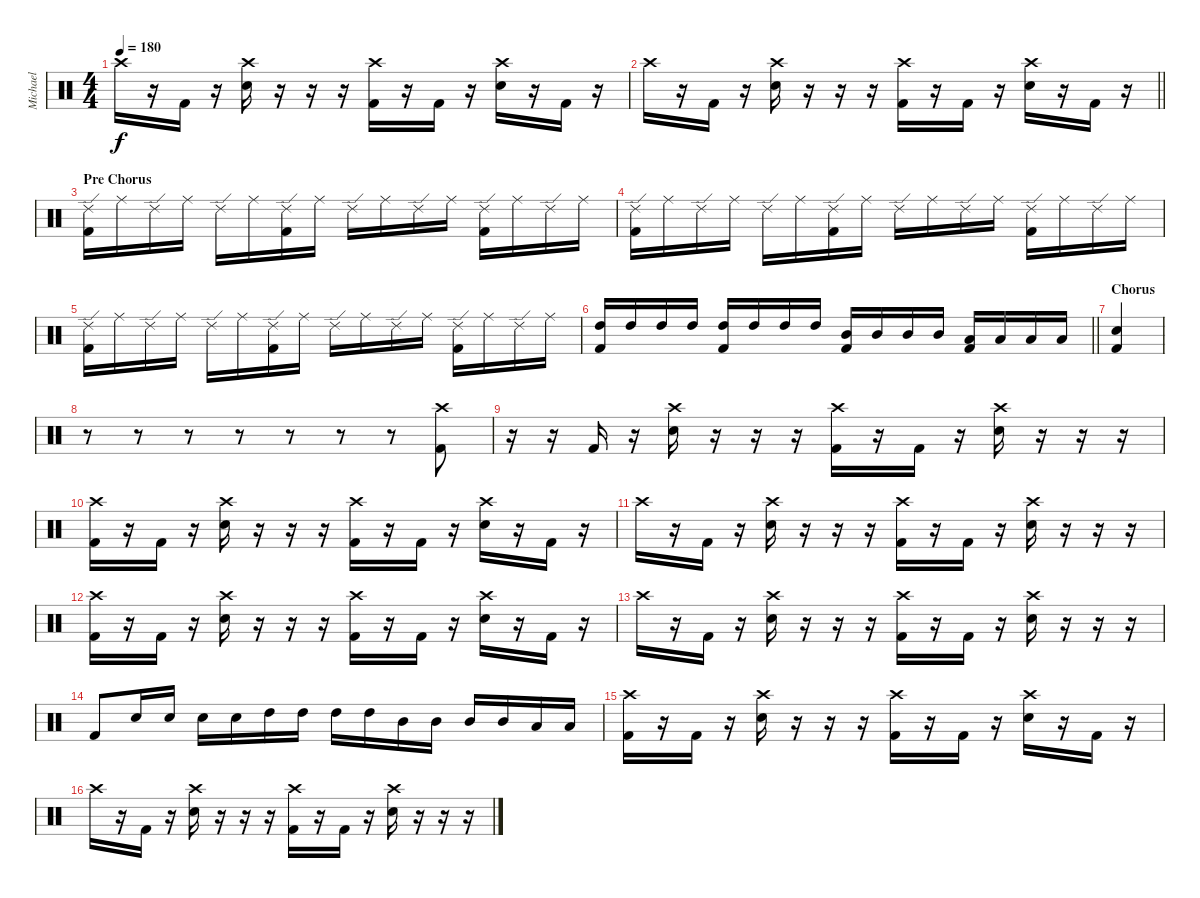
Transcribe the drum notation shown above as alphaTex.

\track ("Michael" "Michael") {instrument percussion}
\staff {score}
\articulation defaults
\ts (4 4)
\tempo 180
\clef neutral
\ks c "Crash high (hit)".16{dy f}
r.16 "Kick (hit) 2".16 r.16 ("Crash high (hit)" "Electric Snare (hit)").16 r.16 r.16 r.16 ("Crash high (hit)" "Kick (hit) 2").16 r.16 "Kick (hit) 2".16 r.16 ("Crash high (hit)" "Electric Snare (hit)").16 r.16 "Kick (hit) 2".16 r.16 |
\barLineRight lightlight "Crash high (hit)".16
r.16 "Kick (hit) 2".16 r.16 ("Crash high (hit)" "Electric Snare (hit)").16 r.16 r.16 r.16 ("Crash high (hit)" "Kick (hit) 2").16 r.16 "Kick (hit) 2".16 r.16 ("Crash high (hit)" "Electric Snare (hit)").16 r.16 "Kick (hit) 2".16 r.16 |
\section ("" "Pre Chorus")
("Ride (edge) 2" "Kick (hit) 2").16 "Ride (middle)".16 "Ride (edge) 2".16 "Ride (middle)".16 "Ride (edge) 2".16 "Ride (middle)".16 ("Ride (edge) 2" "Kick (hit) 2").16 "Ride (middle)".16 "Ride (edge) 2".16 "Ride (middle)".16 "Ride (edge) 2".16 "Ride (middle)".16 ("Ride (edge) 2" "Kick (hit) 2").16 "Ride (middle)".16 "Ride (edge) 2".16 "Ride (middle)".16 |
("Ride (edge) 2" "Kick (hit) 2").16 "Ride (middle)".16 "Ride (edge) 2".16 "Ride (middle)".16 "Ride (edge) 2".16 "Ride (middle)".16 ("Ride (edge) 2" "Kick (hit) 2").16 "Ride (middle)".16 "Ride (edge) 2".16 "Ride (middle)".16 "Ride (edge) 2".16 "Ride (middle)".16 ("Ride (edge) 2" "Kick (hit) 2").16 "Ride (middle)".16 "Ride (edge) 2".16 "Ride (middle)".16 |
("Ride (edge) 2" "Kick (hit) 2").16 "Ride (middle)".16 "Ride (edge) 2".16 "Ride (middle)".16 "Ride (edge) 2".16 "Ride (middle)".16 ("Ride (edge) 2" "Kick (hit) 2").16 "Ride (middle)".16 "Ride (edge) 2".16 "Ride (middle)".16 "Ride (edge) 2".16 "Ride (middle)".16 ("Ride (edge) 2" "Kick (hit) 2").16 "Ride (middle)".16 "Ride (edge) 2".16 "Ride (middle)".16 |
\barLineRight lightlight
("High Tom (hit)" "Kick (hit) 2").16 "High Tom (hit)".16 "High Tom (hit)".16 "High Tom (hit)".16 ("High Tom (hit)" "Kick (hit) 2").16 "High Tom (hit)".16 "High Tom (hit)".16 "High Tom (hit)".16 ("Mid Tom (hit)" "Kick (hit) 2").16 "Mid Tom (hit)".16 "Mid Tom (hit)".16 "Mid Tom (hit)".16 ("Low Tom (hit)" "Kick (hit) 2").16 "Low Tom (hit)".16 "Low Tom (hit)".16 "Low Tom (hit)".16 |
\section ("" "Chorus")
("Electric Snare (hit)" "Kick (hit) 2").4 |
r.8 r.8 r.8 r.8 r.8 r.8 r.8 ("Crash high (hit)" "Kick (hit) 2").8 |
r.16 r.16 "Kick (hit) 2".16 r.16 ("Crash high (hit)" "Electric Snare (hit)").16 r.16 r.16 r.16 ("Crash high (hit)" "Kick (hit) 2").16 r.16 "Kick (hit) 2".16 r.16 ("Crash high (hit)" "Electric Snare (hit)").16 r.16 r.16 r.16 |
("Crash high (hit)" "Kick (hit) 2").16 r.16 "Kick (hit) 2".16 r.16 ("Crash high (hit)" "Electric Snare (hit)").16 r.16 r.16 r.16 ("Crash high (hit)" "Kick (hit) 2").16 r.16 "Kick (hit) 2".16 r.16 ("Crash high (hit)" "Electric Snare (hit)").16 r.16 "Kick (hit) 2".16 r.16 |
"Crash high (hit)".16 r.16 "Kick (hit) 2".16 r.16 ("Crash high (hit)" "Electric Snare (hit)").16 r.16 r.16 r.16 ("Crash high (hit)" "Kick (hit) 2").16 r.16 "Kick (hit) 2".16 r.16 ("Crash high (hit)" "Electric Snare (hit)").16 r.16 r.16 r.16 |
("Crash high (hit)" "Kick (hit) 2").16 r.16 "Kick (hit) 2".16 r.16 ("Crash high (hit)" "Electric Snare (hit)").16 r.16 r.16 r.16 ("Crash high (hit)" "Kick (hit) 2").16 r.16 "Kick (hit) 2".16 r.16 ("Crash high (hit)" "Electric Snare (hit)").16 r.16 "Kick (hit) 2".16 r.16 |
"Crash high (hit)".16 r.16 "Kick (hit) 2".16 r.16 ("Crash high (hit)" "Electric Snare (hit)").16 r.16 r.16 r.16 ("Crash high (hit)" "Kick (hit) 2").16 r.16 "Kick (hit) 2".16 r.16 ("Crash high (hit)" "Electric Snare (hit)").16 r.16 r.16 r.16 |
"Kick (hit) 2".8 "Electric Snare (hit)".16 "Electric Snare (hit)".16 "Electric Snare (hit)".16 "Electric Snare (hit)".16 "High Tom (hit)".16 "High Tom (hit)".16 "High Tom (hit)".16 "High Tom (hit)".16 "Mid Tom (hit)".16 "Mid Tom (hit)".16 "Mid Tom (hit)".16 "Mid Tom (hit)".16 "Low Tom (hit)".16 "Low Tom (hit)".16 |
("Crash high (hit)" "Kick (hit) 2").16 r.16 "Kick (hit) 2".16 r.16 ("Crash high (hit)" "Electric Snare (hit)").16 r.16 r.16 r.16 ("Crash high (hit)" "Kick (hit) 2").16 r.16 "Kick (hit) 2".16 r.16 ("Crash high (hit)" "Electric Snare (hit)").16 r.16 "Kick (hit) 2".16 r.16 |
"Crash high (hit)".16 r.16 "Kick (hit) 2".16 r.16 ("Crash high (hit)" "Electric Snare (hit)").16 r.16 r.16 r.16 ("Crash high (hit)" "Kick (hit) 2").16 r.16 "Kick (hit) 2".16 r.16 ("Crash high (hit)" "Electric Snare (hit)").16 r.16 r.16 r.16
